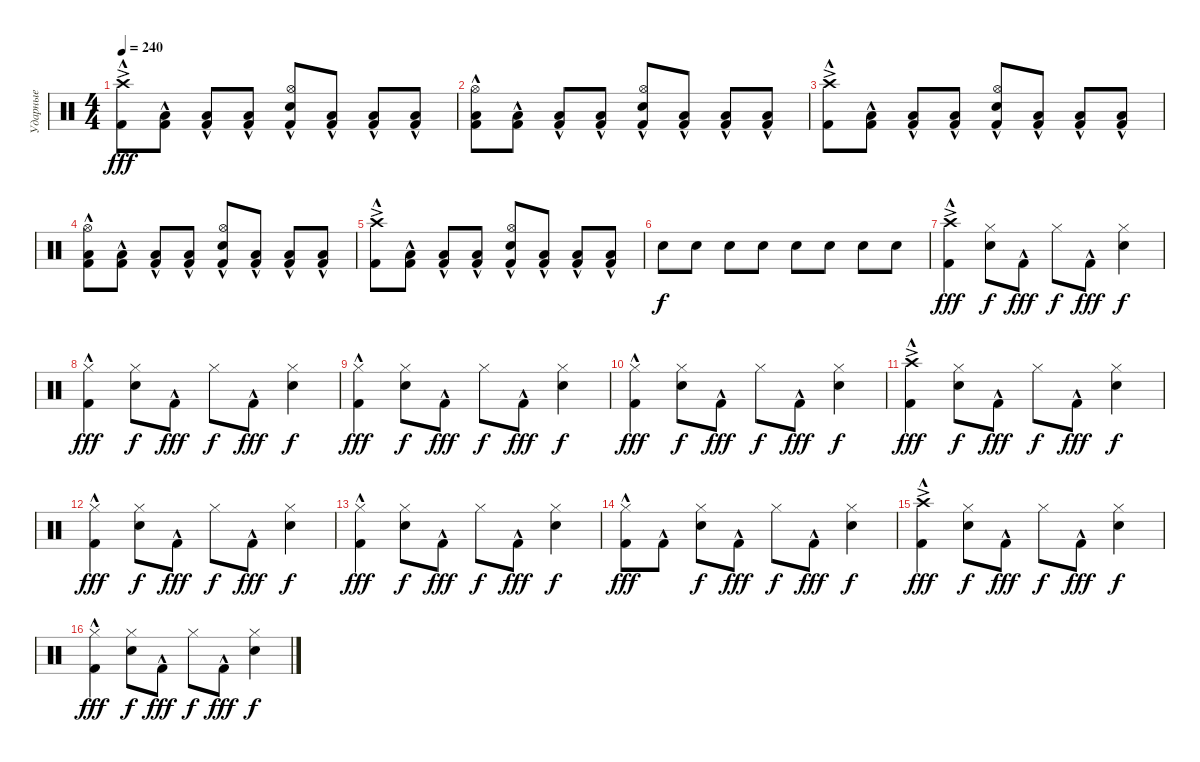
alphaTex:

\track ("Ударные" "Ударные") {instrument percussion}
\staff {score}
\articulation defaults
\ts (4 4)
\tempo 240
\clef neutral
\ks c
("Crash high (hit)"{ac} "Kick (hit) 2"{hac}).8{dy fff} ("Low Floor Tom (hit)" "Kick (hit) 2"{hac}).8 ("Low Floor Tom (hit)" "Kick (hit) 2"{hac}).8 ("Low Floor Tom (hit)" "Kick (hit) 2"{hac}).8 ("Hi-Hat (open)" "Snare (hit) 2" "Kick (hit) 2"{hac}).8 ("Low Floor Tom (hit)" "Kick (hit) 2"{hac}).8 ("Low Floor Tom (hit)" "Kick (hit) 2"{hac}).8 ("Low Floor Tom (hit)" "Kick (hit) 2"{hac}).8 |
("Hi-Hat (open)" "Low Floor Tom (hit)" "Kick (hit) 2"{hac}).8 ("Low Floor Tom (hit)" "Kick (hit) 2"{hac}).8 ("Low Floor Tom (hit)" "Kick (hit) 2"{hac}).8 ("Low Floor Tom (hit)" "Kick (hit) 2"{hac}).8 ("Hi-Hat (open)" "Snare (hit) 2" "Kick (hit) 2"{hac}).8 ("Low Floor Tom (hit)" "Kick (hit) 2"{hac}).8 ("Low Floor Tom (hit)" "Kick (hit) 2"{hac}).8 ("Low Floor Tom (hit)" "Kick (hit) 2"{hac}).8 |
("Crash high (hit)"{ac} "Kick (hit) 2"{hac}).8 ("Low Floor Tom (hit)" "Kick (hit) 2"{hac}).8 ("Low Floor Tom (hit)" "Kick (hit) 2"{hac}).8 ("Low Floor Tom (hit)" "Kick (hit) 2"{hac}).8 ("Hi-Hat (open)" "Snare (hit) 2" "Kick (hit) 2"{hac}).8 ("Low Floor Tom (hit)" "Kick (hit) 2"{hac}).8 ("Low Floor Tom (hit)" "Kick (hit) 2"{hac}).8 ("Low Floor Tom (hit)" "Kick (hit) 2"{hac}).8 |
("Hi-Hat (open)" "Low Floor Tom (hit)" "Kick (hit) 2"{hac}).8 ("Low Floor Tom (hit)" "Kick (hit) 2"{hac}).8 ("Low Floor Tom (hit)" "Kick (hit) 2"{hac}).8 ("Low Floor Tom (hit)" "Kick (hit) 2"{hac}).8 ("Hi-Hat (open)" "Snare (hit) 2" "Kick (hit) 2"{hac}).8 ("Low Floor Tom (hit)" "Kick (hit) 2"{hac}).8 ("Low Floor Tom (hit)" "Kick (hit) 2"{hac}).8 ("Low Floor Tom (hit)" "Kick (hit) 2"{hac}).8 |
("Crash high (hit)"{ac} "Kick (hit) 2"{hac}).8 ("Low Floor Tom (hit)" "Kick (hit) 2"{hac}).8 ("Low Floor Tom (hit)" "Kick (hit) 2"{hac}).8 ("Low Floor Tom (hit)" "Kick (hit) 2"{hac}).8 ("Hi-Hat (open)" "Snare (hit) 2" "Kick (hit) 2"{hac}).8 ("Low Floor Tom (hit)" "Kick (hit) 2"{hac}).8 ("Low Floor Tom (hit)" "Kick (hit) 2"{hac}).8 ("Low Floor Tom (hit)" "Kick (hit) 2"{hac}).8 |
"Snare (hit) 2".8{dy f} "Snare (hit) 2".8 "Snare (hit) 2".8 "Snare (hit) 2".8 "Snare (hit) 2".8 "Snare (hit) 2".8 "Snare (hit) 2".8 "Snare (hit) 2".8 |
("Crash high (hit)"{ac} "Kick (hit) 2"{hac}).4{dy fff} ("Hi-Hat (closed)" "Snare (hit) 2").8{dy f} "Kick (hit) 2"{hac}.8{dy fff} "Hi-Hat (closed)".8{dy f} "Kick (hit) 2"{hac}.8{dy fff} ("Hi-Hat (closed)" "Snare (hit) 2").4{dy f} |
("Hi-Hat (closed)" "Kick (hit) 2"{hac}).4{dy fff} ("Hi-Hat (closed)" "Snare (hit) 2").8{dy f} "Kick (hit) 2"{hac}.8{dy fff} "Hi-Hat (closed)".8{dy f} "Kick (hit) 2"{hac}.8{dy fff} ("Hi-Hat (closed)" "Snare (hit) 2").4{dy f} |
("Hi-Hat (closed)" "Kick (hit) 2"{hac}).4{dy fff} ("Hi-Hat (closed)" "Snare (hit) 2").8{dy f} "Kick (hit) 2"{hac}.8{dy fff} "Hi-Hat (closed)".8{dy f} "Kick (hit) 2"{hac}.8{dy fff} ("Hi-Hat (closed)" "Snare (hit) 2").4{dy f} |
("Hi-Hat (closed)" "Kick (hit) 2"{hac}).4{dy fff} ("Hi-Hat (closed)" "Snare (hit) 2").8{dy f} "Kick (hit) 2"{hac}.8{dy fff} "Hi-Hat (closed)".8{dy f} "Kick (hit) 2"{hac}.8{dy fff} ("Hi-Hat (closed)" "Snare (hit) 2").4{dy f} |
("Crash high (hit)"{ac} "Kick (hit) 2"{hac}).4{dy fff} ("Hi-Hat (closed)" "Snare (hit) 2").8{dy f} "Kick (hit) 2"{hac}.8{dy fff} "Hi-Hat (closed)".8{dy f} "Kick (hit) 2"{hac}.8{dy fff} ("Hi-Hat (closed)" "Snare (hit) 2").4{dy f} |
("Hi-Hat (closed)" "Kick (hit) 2"{hac}).4{dy fff} ("Hi-Hat (closed)" "Snare (hit) 2").8{dy f} "Kick (hit) 2"{hac}.8{dy fff} "Hi-Hat (closed)".8{dy f} "Kick (hit) 2"{hac}.8{dy fff} ("Hi-Hat (closed)" "Snare (hit) 2").4{dy f} |
("Hi-Hat (closed)" "Kick (hit) 2"{hac}).4{dy fff} ("Hi-Hat (closed)" "Snare (hit) 2").8{dy f} "Kick (hit) 2"{hac}.8{dy fff} "Hi-Hat (closed)".8{dy f} "Kick (hit) 2"{hac}.8{dy fff} ("Hi-Hat (closed)" "Snare (hit) 2").4{dy f} |
("Hi-Hat (closed)" "Kick (hit) 2"{hac}).8{dy fff} "Kick (hit) 2"{hac}.8 ("Hi-Hat (closed)" "Snare (hit) 2").8{dy f} "Kick (hit) 2"{hac}.8{dy fff} "Hi-Hat (closed)".8{dy f} "Kick (hit) 2"{hac}.8{dy fff} ("Hi-Hat (closed)" "Snare (hit) 2").4{dy f} |
("Crash high (hit)"{ac} "Kick (hit) 2"{hac}).4{dy fff} ("Hi-Hat (closed)" "Snare (hit) 2").8{dy f} "Kick (hit) 2"{hac}.8{dy fff} "Hi-Hat (closed)".8{dy f} "Kick (hit) 2"{hac}.8{dy fff} ("Hi-Hat (closed)" "Snare (hit) 2").4{dy f} |
("Hi-Hat (closed)" "Kick (hit) 2"{hac}).4{dy fff} ("Hi-Hat (closed)" "Snare (hit) 2").8{dy f} "Kick (hit) 2"{hac}.8{dy fff} "Hi-Hat (closed)".8{dy f} "Kick (hit) 2"{hac}.8{dy fff} ("Hi-Hat (closed)" "Snare (hit) 2").4{dy f}
